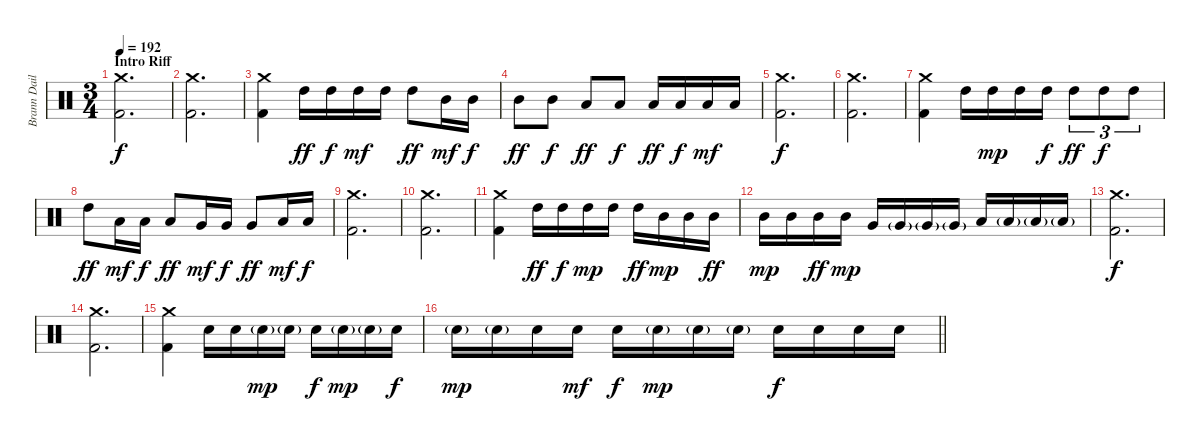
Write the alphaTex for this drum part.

\track ("Brann Dailor - Drums" "Brann Dail") {instrument percussion}
\staff {score}
\articulation defaults
\ts (3 4)
\section ("" "Intro Riff")
\tempo 192
\clef neutral
\ks c
("Crash medium (hit)" "Kick (hit) 2").2{d dy f} |
("Crash medium (hit)" "Kick (hit) 2").2{d} |
("Crash medium (hit)" "Kick (hit) 2").4 "High Tom (hit)".16{dy ff} "High Tom (hit)".16{dy f} "High Tom (hit)".16{dy mf} "High Tom (hit)".16 "High Tom (hit)".8{dy ff} "Mid Tom (hit)".16{dy mf} "Mid Tom (hit)".16{dy f} |
"Mid Tom (hit)".8{dy ff} "Mid Tom (hit)".8{dy f} "Low Tom (hit)".8{dy ff} "Low Tom (hit)".8{dy f} "Low Floor Tom (hit)".16{dy ff} "Low Floor Tom (hit)".16{dy f} "Low Floor Tom (hit)".16{dy mf} "Low Floor Tom (hit)".16 |
("Crash medium (hit)" "Kick (hit) 2").2{d dy f} |
("Crash medium (hit)" "Kick (hit) 2").2{d} |
("Crash medium (hit)" "Kick (hit) 2").4 "High Tom (hit)".16 "High Tom (hit)".16{dy mp} "High Tom (hit)".16 "High Tom (hit)".16{dy f} "High Tom (hit)".8{tu (3 2) dy ff} "High Tom (hit)".8{tu (3 2) dy f} "High Tom (hit)".8{tu (3 2)} |
"High Tom (hit)".8{dy ff} "Low Tom (hit)".16{dy mf} "Low Tom (hit)".16{dy f} "Low Tom (hit)".8{dy ff} "Very Low Tom (hit)".16{dy mf} "Very Low Tom (hit)".16{dy f} "Very Low Tom (hit)".8{dy ff} "Low Floor Tom (hit)".16{dy mf} "Low Floor Tom (hit)".16{dy f} |
("Crash medium (hit)" "Kick (hit) 2").2{d} |
("Crash medium (hit)" "Kick (hit) 2").2{d} |
("Crash medium (hit)" "Kick (hit) 2").4 "High Tom (hit)".16{dy ff} "High Tom (hit)".16{dy f} "High Tom (hit)".16{dy mp} "High Tom (hit)".16 "High Tom (hit)".16{dy ff} "Mid Tom (hit)".16{dy mp} "Mid Tom (hit)".16 "Mid Tom (hit)".16{dy ff} |
"Mid Tom (hit)".16{dy mp} "Mid Tom (hit)".16 "Mid Tom (hit)".16{dy ff} "Mid Tom (hit)".16{dy mp} "Very Low Tom (hit)".16 "Very Low Tom (hit)"{g}.16 "Very Low Tom (hit)"{g}.16 "Very Low Tom (hit)"{g}.16 "Low Floor Tom (hit)".16 "Low Floor Tom (hit)"{g}.16 "Low Floor Tom (hit)"{g}.16 "Low Floor Tom (hit)"{g}.16 |
("Crash medium (hit)" "Kick (hit) 2").2{d dy f} |
("Crash medium (hit)" "Kick (hit) 2").2{d} |
("Crash medium (hit)" "Kick (hit) 2").4 "Electric Snare (hit)".16 "Electric Snare (hit)".16 "Electric Snare (hit)"{g}.16{dy mp} "Electric Snare (hit)"{g}.16 "Electric Snare (hit)".16{dy f} "Electric Snare (hit)"{g}.16{dy mp} "Electric Snare (hit)"{g}.16 "Electric Snare (hit)".16{dy f} |
\barLineRight lightlight "Electric Snare (hit)"{g}.16{dy mp} "Electric Snare (hit)"{g}.16 "Electric Snare (hit)".16 "Electric Snare (hit)".16{dy mf} "Electric Snare (hit)".16{dy f} "Electric Snare (hit)"{g}.16{dy mp} "Electric Snare (hit)"{g}.16 "Electric Snare (hit)"{g}.16 "Electric Snare (hit)".16{dy f} "Electric Snare (hit)".16 "Electric Snare (hit)".16 "Electric Snare (hit)".16
